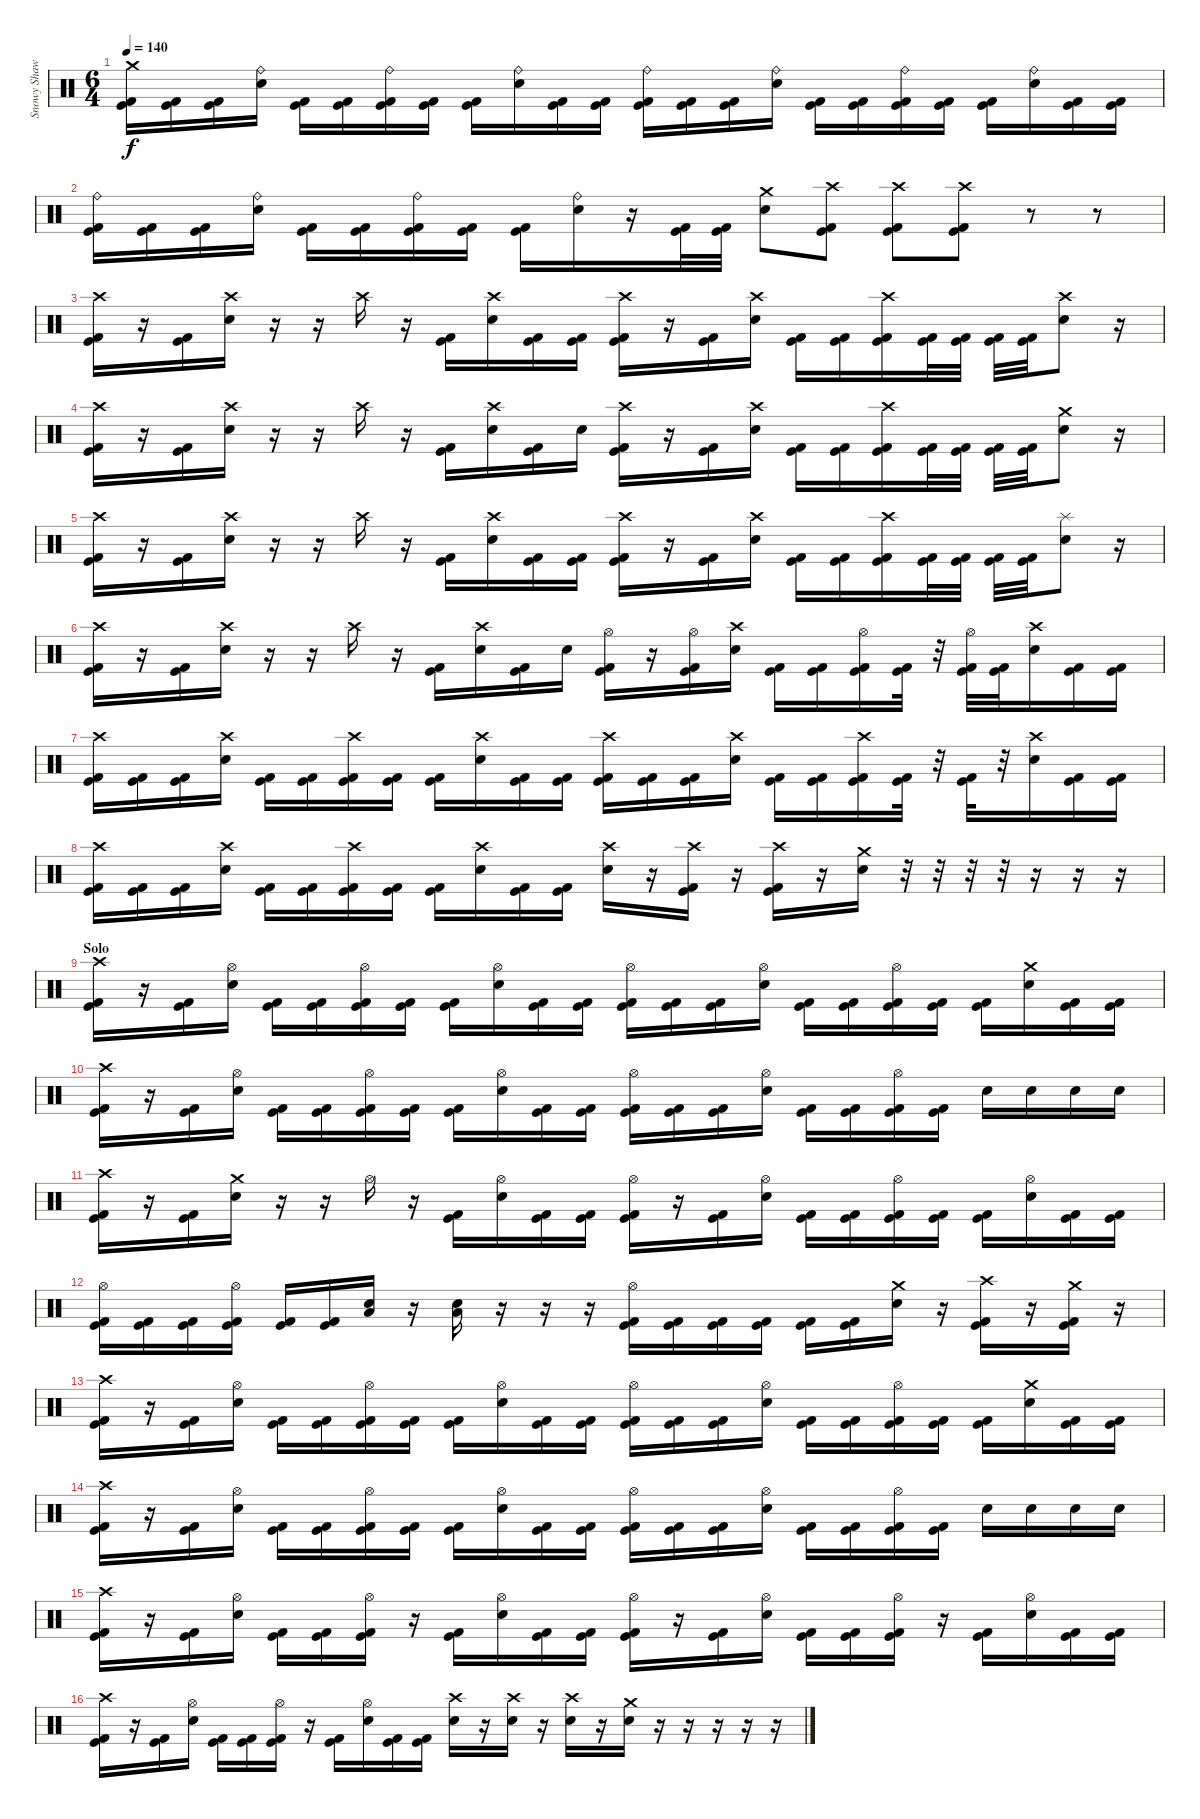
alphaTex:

\track ("Snowy Shaw" "Snowy Shaw") {instrument percussion}
\staff {score}
\articulation defaults
\ts (6 4)
\tempo 140
\clef neutral
\ks c
("Crash medium (hit)" "Kick (hit) 2" "Kick (hit)").16{dy f} ("Kick (hit) 2" "Kick (hit)").16 ("Kick (hit) 2" "Kick (hit)").16 ("Ride (bell)" "Electric Snare (hit)").16 ("Kick (hit) 2" "Kick (hit)").16 ("Kick (hit) 2" "Kick (hit)").16 ("Ride (bell)" "Kick (hit) 2" "Kick (hit)").16 ("Kick (hit) 2" "Kick (hit)").16 ("Kick (hit)" "Kick (hit) 2").16 ("Ride (bell)" "Electric Snare (hit)").16 ("Kick (hit)" "Kick (hit) 2").16 ("Kick (hit)" "Kick (hit) 2").16 ("Ride (bell)" "Kick (hit)" "Kick (hit) 2").16 ("Kick (hit) 2" "Kick (hit)").16 ("Kick (hit)" "Kick (hit) 2").16 ("Ride (bell)" "Electric Snare (hit)").16 ("Kick (hit) 2" "Kick (hit)").16 ("Kick (hit) 2" "Kick (hit)").16 ("Ride (bell)" "Kick (hit) 2" "Kick (hit)").16 ("Kick (hit) 2" "Kick (hit)").16 ("Kick (hit)" "Kick (hit) 2").16 ("Ride (bell)" "Electric Snare (hit)").16 ("Kick (hit)" "Kick (hit) 2").16 ("Kick (hit)" "Kick (hit) 2").16 |
("Ride (bell)" "Kick (hit) 2" "Kick (hit)").16 ("Kick (hit) 2" "Kick (hit)").16 ("Kick (hit) 2" "Kick (hit)").16 ("Ride (bell)" "Electric Snare (hit)").16 ("Kick (hit) 2" "Kick (hit)").16 ("Kick (hit) 2" "Kick (hit)").16 ("Ride (bell)" "Kick (hit) 2" "Kick (hit)").16 ("Kick (hit) 2" "Kick (hit)").16 ("Kick (hit)" "Kick (hit) 2").16 ("Ride (bell)" "Electric Snare (hit)").16 r.16 ("Kick (hit) 2" "Kick (hit)").32 ("Kick (hit) 2" "Kick (hit)").32 ("Crash medium (hit)" "Electric Snare (hit)").8 ("Crash high (hit)" "Kick (hit)" "Kick (hit) 2").8 ("Crash high (hit)" "Kick (hit)" "Kick (hit) 2").8 ("Crash high (hit)" "Kick (hit) 2" "Kick (hit)").8 r.8 r.8 |
("Crash high (hit)" "Kick (hit) 2" "Kick (hit)").16 r.16 ("Kick (hit) 2" "Kick (hit)").16 ("Crash high (hit)" "Electric Snare (hit)").16 r.16 r.16 "Crash high (hit)".16 r.16 ("Kick (hit)" "Kick (hit) 2").16 ("Crash high (hit)" "Electric Snare (hit)").16 ("Kick (hit)" "Kick (hit) 2").16 ("Kick (hit)" "Kick (hit) 2").16 ("Crash high (hit)" "Kick (hit) 2" "Kick (hit)").16 r.16 ("Kick (hit) 2" "Kick (hit)").16 ("Crash high (hit)" "Electric Snare (hit)").16 ("Kick (hit)" "Kick (hit) 2").16 ("Kick (hit)" "Kick (hit) 2").16 ("Crash high (hit)" "Kick (hit)" "Kick (hit) 2").16 ("Kick (hit)" "Kick (hit) 2").32 ("Kick (hit)" "Kick (hit) 2").32 ("Kick (hit)" "Kick (hit) 2").32 ("Kick (hit)" "Kick (hit) 2").32 ("Crash high (hit)" "Electric Snare (hit)").8 r.16 |
("Crash high (hit)" "Kick (hit) 2" "Kick (hit)").16 r.16 ("Kick (hit) 2" "Kick (hit)").16 ("Crash high (hit)" "Electric Snare (hit)").16 r.16 r.16 "Crash high (hit)".16 r.16 ("Kick (hit)" "Kick (hit) 2").16 ("Crash high (hit)" "Electric Snare (hit)").16 ("Kick (hit)" "Kick (hit) 2").16 "Electric Snare (hit)".16 ("Crash high (hit)" "Kick (hit) 2" "Kick (hit)").16 r.16 ("Kick (hit) 2" "Kick (hit)").16 ("Crash high (hit)" "Electric Snare (hit)").16 ("Kick (hit)" "Kick (hit) 2").16 ("Kick (hit)" "Kick (hit) 2").16 ("Crash high (hit)" "Kick (hit)" "Kick (hit) 2").16 ("Kick (hit)" "Kick (hit) 2").32 ("Kick (hit)" "Kick (hit) 2").32 ("Kick (hit)" "Kick (hit) 2").32 ("Kick (hit)" "Kick (hit) 2").32 ("Crash medium (hit)" "Electric Snare (hit)").8 r.16 |
("Crash high (hit)" "Kick (hit) 2" "Kick (hit)").16 r.16 ("Kick (hit) 2" "Kick (hit)").16 ("Crash high (hit)" "Electric Snare (hit)").16 r.16 r.16 "Crash high (hit)".16 r.16 ("Kick (hit)" "Kick (hit) 2").16 ("Crash high (hit)" "Electric Snare (hit)").16 ("Kick (hit)" "Kick (hit) 2").16 ("Kick (hit)" "Kick (hit) 2").16 ("Crash high (hit)" "Kick (hit) 2" "Kick (hit)").16 r.16 ("Kick (hit) 2" "Kick (hit)").16 ("Crash high (hit)" "Electric Snare (hit)").16 ("Kick (hit)" "Kick (hit) 2").16 ("Kick (hit)" "Kick (hit) 2").16 ("Crash high (hit)" "Kick (hit)" "Kick (hit) 2").16 ("Kick (hit)" "Kick (hit) 2").32 ("Kick (hit)" "Kick (hit) 2").32 ("Kick (hit)" "Kick (hit) 2").32 ("Kick (hit)" "Kick (hit) 2").32 ("Splash (hit)" "Electric Snare (hit)").8 r.16 |
("Crash high (hit)" "Kick (hit) 2" "Kick (hit)").16 r.16 ("Kick (hit) 2" "Kick (hit)").16 ("Crash high (hit)" "Electric Snare (hit)").16 r.16 r.16 "Crash high (hit)".16 r.16 ("Kick (hit)" "Kick (hit) 2").16 ("Crash high (hit)" "Electric Snare (hit)").16 ("Kick (hit)" "Kick (hit) 2").16 "Electric Snare (hit)".16 ("Hi-Hat (open)" "Kick (hit) 2" "Kick (hit)").16 r.16 ("Hi-Hat (open)" "Kick (hit) 2" "Kick (hit)").16 ("Crash high (hit)" "Electric Snare (hit)").16 ("Kick (hit)" "Kick (hit) 2").16 ("Kick (hit)" "Kick (hit) 2").16 ("Hi-Hat (open)" "Kick (hit)" "Kick (hit) 2").16 ("Kick (hit)" "Kick (hit) 2").32 r.32 ("Hi-Hat (open)" "Kick (hit)" "Kick (hit) 2").32 ("Kick (hit)" "Kick (hit) 2").32 ("Crash high (hit)" "Electric Snare (hit)").16 ("Kick (hit) 2" "Kick (hit)").16 ("Kick (hit) 2" "Kick (hit)").16 |
("Crash high (hit)" "Kick (hit) 2" "Kick (hit)").16 ("Kick (hit) 2" "Kick (hit)").16 ("Kick (hit) 2" "Kick (hit)").16 ("Crash high (hit)" "Electric Snare (hit)").16 ("Kick (hit) 2" "Kick (hit)").16 ("Kick (hit) 2" "Kick (hit)").16 ("Crash high (hit)" "Kick (hit) 2" "Kick (hit)").16 ("Kick (hit) 2" "Kick (hit)").16 ("Kick (hit)" "Kick (hit) 2").16 ("Crash high (hit)" "Electric Snare (hit)").16 ("Kick (hit)" "Kick (hit) 2").16 ("Kick (hit)" "Kick (hit) 2").16 ("Crash high (hit)" "Kick (hit) 2" "Kick (hit)").16 ("Kick (hit) 2" "Kick (hit)").16 ("Kick (hit) 2" "Kick (hit)").16 ("Crash high (hit)" "Electric Snare (hit)").16 ("Kick (hit)" "Kick (hit) 2").16 ("Kick (hit)" "Kick (hit) 2").16 ("Crash high (hit)" "Kick (hit)" "Kick (hit) 2").16 ("Kick (hit)" "Kick (hit) 2").32 r.32 ("Kick (hit)" "Kick (hit) 2").32 r.32 ("Crash high (hit)" "Electric Snare (hit)").16 ("Kick (hit) 2" "Kick (hit)").16 ("Kick (hit) 2" "Kick (hit)").16 |
("Crash high (hit)" "Kick (hit) 2" "Kick (hit)").16 ("Kick (hit) 2" "Kick (hit)").16 ("Kick (hit) 2" "Kick (hit)").16 ("Crash high (hit)" "Electric Snare (hit)").16 ("Kick (hit) 2" "Kick (hit)").16 ("Kick (hit) 2" "Kick (hit)").16 ("Crash high (hit)" "Kick (hit) 2" "Kick (hit)").16 ("Kick (hit) 2" "Kick (hit)").16 ("Kick (hit)" "Kick (hit) 2").16 ("Crash high (hit)" "Electric Snare (hit)").16 ("Kick (hit)" "Kick (hit) 2").16 ("Kick (hit)" "Kick (hit) 2").16 ("Crash high (hit)" "Electric Snare (hit)").16 r.16 ("Crash high (hit)" "Kick (hit) 2" "Kick (hit)").16 r.16 ("Crash high (hit)" "Kick (hit) 2" "Kick (hit)").16 r.16 ("Crash medium (hit)" "Electric Snare (hit)").16 r.32 r.32 r.32 r.32 r.16 r.16 r.16 |
\section ("" "Solo")
("Crash high (hit)" "Kick (hit) 2" "Kick (hit)").16 r.16 ("Kick (hit) 2" "Kick (hit)").16 ("Hi-Hat (open)" "Electric Snare (hit)").16 ("Kick (hit)" "Kick (hit) 2").16 ("Kick (hit)" "Kick (hit) 2").16 ("Hi-Hat (open)" "Kick (hit)" "Kick (hit) 2").16 ("Kick (hit) 2" "Kick (hit)").16 ("Kick (hit)" "Kick (hit) 2").16 ("Hi-Hat (open)" "Electric Snare (hit)").16 ("Kick (hit)" "Kick (hit) 2").16 ("Kick (hit)" "Kick (hit) 2").16 ("Hi-Hat (open)" "Kick (hit)" "Kick (hit) 2").16 ("Kick (hit) 2" "Kick (hit)").16 ("Kick (hit)" "Kick (hit) 2").16 ("Hi-Hat (open)" "Electric Snare (hit)").16 ("Kick (hit)" "Kick (hit) 2").16 ("Kick (hit)" "Kick (hit) 2").16 ("Hi-Hat (open)" "Kick (hit)" "Kick (hit) 2").16 ("Kick (hit)" "Kick (hit) 2").16 ("Kick (hit)" "Kick (hit) 2").16 ("Crash medium (hit)" "Electric Snare (hit)").16 ("Kick (hit)" "Kick (hit) 2").16 ("Kick (hit)" "Kick (hit) 2").16 |
("Crash high (hit)" "Kick (hit) 2" "Kick (hit)").16 r.16 ("Kick (hit) 2" "Kick (hit)").16 ("Hi-Hat (open)" "Electric Snare (hit)").16 ("Kick (hit)" "Kick (hit) 2").16 ("Kick (hit)" "Kick (hit) 2").16 ("Hi-Hat (open)" "Kick (hit)" "Kick (hit) 2").16 ("Kick (hit) 2" "Kick (hit)").16 ("Kick (hit)" "Kick (hit) 2").16 ("Hi-Hat (open)" "Electric Snare (hit)").16 ("Kick (hit)" "Kick (hit) 2").16 ("Kick (hit)" "Kick (hit) 2").16 ("Hi-Hat (open)" "Kick (hit)" "Kick (hit) 2").16 ("Kick (hit) 2" "Kick (hit)").16 ("Kick (hit)" "Kick (hit) 2").16 ("Hi-Hat (open)" "Electric Snare (hit)").16 ("Kick (hit)" "Kick (hit) 2").16 ("Kick (hit)" "Kick (hit) 2").16 ("Hi-Hat (open)" "Kick (hit)" "Kick (hit) 2").16 ("Kick (hit) 2" "Kick (hit)").16 "Electric Snare (hit)".16 "Electric Snare (hit)".16 "Electric Snare (hit)".16 "Electric Snare (hit)".16 |
("Crash high (hit)" "Kick (hit) 2" "Kick (hit)").16 r.16 ("Kick (hit) 2" "Kick (hit)").16 ("Crash medium (hit)" "Electric Snare (hit)").16 r.16 r.16 "Hi-Hat (open)".16 r.16 ("Kick (hit)" "Kick (hit) 2").16 ("Hi-Hat (open)" "Electric Snare (hit)").16 ("Kick (hit)" "Kick (hit) 2").16 ("Kick (hit)" "Kick (hit) 2").16 ("Hi-Hat (open)" "Kick (hit)" "Kick (hit) 2").16 r.16 ("Kick (hit)" "Kick (hit) 2").16 ("Hi-Hat (open)" "Electric Snare (hit)").16 ("Kick (hit)" "Kick (hit) 2").16 ("Kick (hit)" "Kick (hit) 2").16 ("Hi-Hat (open)" "Kick (hit)" "Kick (hit) 2").16 ("Kick (hit)" "Kick (hit) 2").16 ("Kick (hit)" "Kick (hit) 2").16 ("Hi-Hat (open)" "Electric Snare (hit)").16 ("Kick (hit)" "Kick (hit) 2").16 ("Kick (hit)" "Kick (hit) 2").16 |
("Hi-Hat (open)" "Kick (hit)" "Kick (hit) 2").16 ("Kick (hit)" "Kick (hit) 2").16 ("Kick (hit)" "Kick (hit) 2").16 ("Hi-Hat (open)" "Kick (hit)" "Kick (hit) 2").16 ("Kick (hit)" "Kick (hit) 2").16 ("Kick (hit)" "Kick (hit) 2").16 ("Low Tom (hit)" "Electric Snare (hit)").16 r.16 ("Low Tom (hit)" "Electric Snare (hit)").16 r.16 r.16 r.16 ("Hi-Hat (open)" "Kick (hit)" "Kick (hit) 2").16 ("Kick (hit)" "Kick (hit) 2").16 ("Kick (hit)" "Kick (hit) 2").16 ("Kick (hit)" "Kick (hit) 2").16 ("Kick (hit)" "Kick (hit) 2").16 ("Kick (hit)" "Kick (hit) 2").16 ("Crash medium (hit)" "Electric Snare (hit)").16 r.16 ("Crash high (hit)" "Kick (hit) 2" "Kick (hit)").16 r.16 ("Crash medium (hit)" "Kick (hit) 2" "Kick (hit)").16 r.16 |
("Crash high (hit)" "Kick (hit) 2" "Kick (hit)").16 r.16 ("Kick (hit) 2" "Kick (hit)").16 ("Hi-Hat (open)" "Electric Snare (hit)").16 ("Kick (hit)" "Kick (hit) 2").16 ("Kick (hit)" "Kick (hit) 2").16 ("Hi-Hat (open)" "Kick (hit)" "Kick (hit) 2").16 ("Kick (hit) 2" "Kick (hit)").16 ("Kick (hit)" "Kick (hit) 2").16 ("Hi-Hat (open)" "Electric Snare (hit)").16 ("Kick (hit)" "Kick (hit) 2").16 ("Kick (hit)" "Kick (hit) 2").16 ("Hi-Hat (open)" "Kick (hit)" "Kick (hit) 2").16 ("Kick (hit) 2" "Kick (hit)").16 ("Kick (hit)" "Kick (hit) 2").16 ("Hi-Hat (open)" "Electric Snare (hit)").16 ("Kick (hit)" "Kick (hit) 2").16 ("Kick (hit)" "Kick (hit) 2").16 ("Hi-Hat (open)" "Kick (hit)" "Kick (hit) 2").16 ("Kick (hit)" "Kick (hit) 2").16 ("Kick (hit)" "Kick (hit) 2").16 ("Crash medium (hit)" "Electric Snare (hit)").16 ("Kick (hit)" "Kick (hit) 2").16 ("Kick (hit)" "Kick (hit) 2").16 |
("Crash high (hit)" "Kick (hit) 2" "Kick (hit)").16 r.16 ("Kick (hit) 2" "Kick (hit)").16 ("Hi-Hat (open)" "Electric Snare (hit)").16 ("Kick (hit)" "Kick (hit) 2").16 ("Kick (hit)" "Kick (hit) 2").16 ("Hi-Hat (open)" "Kick (hit)" "Kick (hit) 2").16 ("Kick (hit) 2" "Kick (hit)").16 ("Kick (hit)" "Kick (hit) 2").16 ("Hi-Hat (open)" "Electric Snare (hit)").16 ("Kick (hit)" "Kick (hit) 2").16 ("Kick (hit)" "Kick (hit) 2").16 ("Hi-Hat (open)" "Kick (hit)" "Kick (hit) 2").16 ("Kick (hit) 2" "Kick (hit)").16 ("Kick (hit)" "Kick (hit) 2").16 ("Hi-Hat (open)" "Electric Snare (hit)").16 ("Kick (hit)" "Kick (hit) 2").16 ("Kick (hit)" "Kick (hit) 2").16 ("Hi-Hat (open)" "Kick (hit)" "Kick (hit) 2").16 ("Kick (hit) 2" "Kick (hit)").16 "Electric Snare (hit)".16 "Electric Snare (hit)".16 "Electric Snare (hit)".16 "Electric Snare (hit)".16 |
("Crash high (hit)" "Kick (hit) 2" "Kick (hit)").16 r.16 ("Kick (hit) 2" "Kick (hit)").16 ("Hi-Hat (open)" "Electric Snare (hit)").16 ("Kick (hit) 2" "Kick (hit)").16 ("Kick (hit) 2" "Kick (hit)").16 ("Hi-Hat (open)" "Kick (hit) 2" "Kick (hit)").16 r.16 ("Kick (hit)" "Kick (hit) 2").16 ("Hi-Hat (open)" "Electric Snare (hit)").16 ("Kick (hit)" "Kick (hit) 2").16 ("Kick (hit)" "Kick (hit) 2").16 ("Hi-Hat (open)" "Kick (hit)" "Kick (hit) 2").16 r.16 ("Kick (hit)" "Kick (hit) 2").16 ("Hi-Hat (open)" "Electric Snare (hit)").16 ("Kick (hit) 2" "Kick (hit)").16 ("Kick (hit) 2" "Kick (hit)").16 ("Hi-Hat (open)" "Kick (hit) 2" "Kick (hit)").16 r.16 ("Kick (hit)" "Kick (hit) 2").16 ("Hi-Hat (open)" "Electric Snare (hit)").16 ("Kick (hit)" "Kick (hit) 2").16 ("Kick (hit)" "Kick (hit) 2").16 |
("Crash high (hit)" "Kick (hit) 2" "Kick (hit)").16 r.16 ("Kick (hit) 2" "Kick (hit)").16 ("Hi-Hat (open)" "Electric Snare (hit)").16 ("Kick (hit) 2" "Kick (hit)").16 ("Kick (hit) 2" "Kick (hit)").16 ("Hi-Hat (open)" "Kick (hit) 2" "Kick (hit)").16 r.16 ("Kick (hit)" "Kick (hit) 2").16 ("Hi-Hat (open)" "Electric Snare (hit)").16 ("Kick (hit)" "Kick (hit) 2").16 ("Kick (hit)" "Kick (hit) 2").16 ("Crash high (hit)" "Electric Snare (hit)").16 r.16 ("Crash high (hit)" "Electric Snare (hit)").16 r.16 ("Crash high (hit)" "Electric Snare (hit)").16 r.16 ("Crash medium (hit)" "Electric Snare (hit)").16 r.16 r.16 r.16 r.16 r.16
